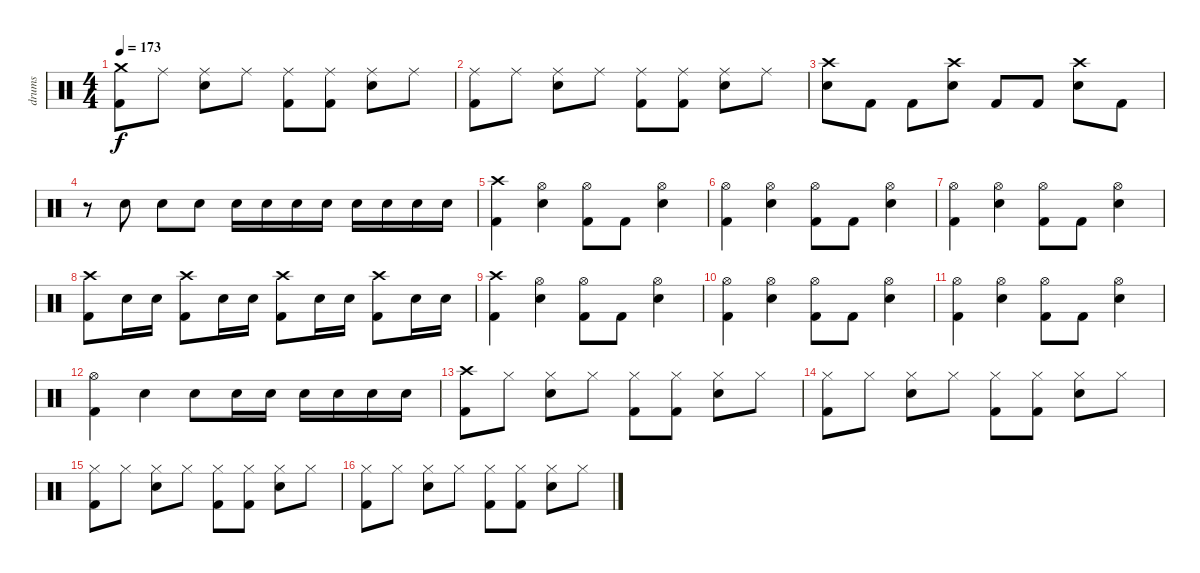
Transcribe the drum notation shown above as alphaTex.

\track ("drums" "drums") {instrument percussion}
\staff {score}
\articulation defaults
\ts (4 4)
\tempo 173
\clef neutral
\ks c
("Crash medium (hit)" "Kick (hit) 2").8{dy f} "Ride (middle)".8 ("Ride (middle)" "Electric Snare (hit)").8 "Ride (middle)".8 ("Ride (middle)" "Kick (hit) 2").8 ("Ride (middle)" "Kick (hit) 2").8 ("Ride (middle)" "Electric Snare (hit)").8 "Ride (middle)".8 |
("Ride (middle)" "Kick (hit) 2").8 "Ride (middle)".8 ("Ride (middle)" "Electric Snare (hit)").8 "Ride (middle)".8 ("Ride (middle)" "Kick (hit) 2").8 ("Ride (middle)" "Kick (hit) 2").8 ("Ride (middle)" "Electric Snare (hit)").8 "Ride (middle)".8 |
("Crash high (hit)" "Electric Snare (hit)").8 "Kick (hit) 2".8 "Kick (hit) 2".8 ("Crash high (hit)" "Electric Snare (hit)").8 "Kick (hit) 2".8 "Kick (hit) 2".8 ("Crash high (hit)" "Electric Snare (hit)").8 "Kick (hit) 2".8 |
r.8 "Electric Snare (hit)".8 "Electric Snare (hit)".8 "Electric Snare (hit)".8 "Electric Snare (hit)".16 "Electric Snare (hit)".16 "Electric Snare (hit)".16 "Electric Snare (hit)".16 "Electric Snare (hit)".16 "Electric Snare (hit)".16 "Electric Snare (hit)".16 "Electric Snare (hit)".16 |
("Crash high (hit)" "Kick (hit) 2").4 ("Hi-Hat (open)" "Electric Snare (hit)").4 ("Hi-Hat (open)" "Kick (hit) 2").8 "Kick (hit) 2".8 ("Hi-Hat (open)" "Electric Snare (hit)").4 |
("Hi-Hat (open)" "Kick (hit) 2").4 ("Hi-Hat (open)" "Electric Snare (hit)").4 ("Hi-Hat (open)" "Kick (hit) 2").8 "Kick (hit) 2".8 ("Hi-Hat (open)" "Electric Snare (hit)").4 |
("Hi-Hat (open)" "Kick (hit) 2").4 ("Hi-Hat (open)" "Electric Snare (hit)").4 ("Hi-Hat (open)" "Kick (hit) 2").8 "Kick (hit) 2".8 ("Hi-Hat (open)" "Electric Snare (hit)").4 |
("Crash high (hit)" "Kick (hit) 2").8 "Electric Snare (hit)".16 "Electric Snare (hit)".16 ("Crash high (hit)" "Kick (hit) 2").8 "Electric Snare (hit)".16 "Electric Snare (hit)".16 ("Crash high (hit)" "Kick (hit) 2").8 "Electric Snare (hit)".16 "Electric Snare (hit)".16 ("Crash high (hit)" "Kick (hit) 2").8 "Electric Snare (hit)".16 "Electric Snare (hit)".16 |
("Crash high (hit)" "Kick (hit) 2").4 ("Hi-Hat (open)" "Electric Snare (hit)").4 ("Hi-Hat (open)" "Kick (hit) 2").8 "Kick (hit) 2".8 ("Hi-Hat (open)" "Electric Snare (hit)").4 |
("Hi-Hat (open)" "Kick (hit) 2").4 ("Hi-Hat (open)" "Electric Snare (hit)").4 ("Hi-Hat (open)" "Kick (hit) 2").8 "Kick (hit) 2".8 ("Hi-Hat (open)" "Electric Snare (hit)").4 |
("Hi-Hat (open)" "Kick (hit) 2").4 ("Hi-Hat (open)" "Electric Snare (hit)").4 ("Hi-Hat (open)" "Kick (hit) 2").8 "Kick (hit) 2".8 ("Hi-Hat (open)" "Electric Snare (hit)").4 |
("Hi-Hat (open)" "Kick (hit) 2").4 "Electric Snare (hit)".4 "Electric Snare (hit)".8 "Electric Snare (hit)".16 "Electric Snare (hit)".16 "Electric Snare (hit)".16 "Electric Snare (hit)".16 "Electric Snare (hit)".16 "Electric Snare (hit)".16 |
("Kick (hit) 2" "Crash high (hit)").8 "Hi-Hat (closed)".8 ("Electric Snare (hit)" "Hi-Hat (closed)").8 "Hi-Hat (closed)".8 ("Kick (hit) 2" "Hi-Hat (closed)").8 ("Kick (hit) 2" "Hi-Hat (closed)").8 ("Electric Snare (hit)" "Hi-Hat (closed)").8 "Hi-Hat (closed)".8 |
("Kick (hit) 2" "Hi-Hat (closed)").8 "Hi-Hat (closed)".8 ("Electric Snare (hit)" "Hi-Hat (closed)").8 "Hi-Hat (closed)".8 ("Kick (hit) 2" "Hi-Hat (closed)").8 ("Kick (hit) 2" "Hi-Hat (closed)").8 ("Electric Snare (hit)" "Hi-Hat (closed)").8 "Hi-Hat (closed)".8 |
("Kick (hit) 2" "Hi-Hat (closed)").8 "Hi-Hat (closed)".8 ("Electric Snare (hit)" "Hi-Hat (closed)").8 "Hi-Hat (closed)".8 ("Kick (hit) 2" "Hi-Hat (closed)").8 ("Kick (hit) 2" "Hi-Hat (closed)").8 ("Electric Snare (hit)" "Hi-Hat (closed)").8 "Hi-Hat (closed)".8 |
("Kick (hit) 2" "Hi-Hat (closed)").8 "Hi-Hat (closed)".8 ("Electric Snare (hit)" "Hi-Hat (closed)").8 "Hi-Hat (closed)".8 ("Kick (hit) 2" "Hi-Hat (closed)").8 ("Kick (hit) 2" "Hi-Hat (closed)").8 ("Electric Snare (hit)" "Hi-Hat (closed)").8 "Hi-Hat (closed)".8
